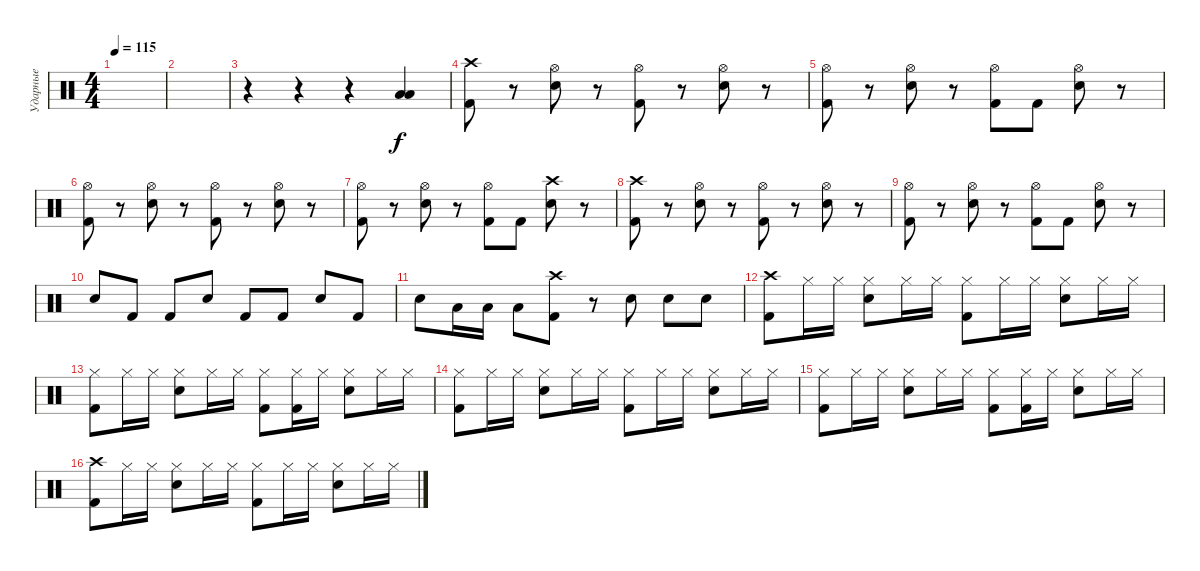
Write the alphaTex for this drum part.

\track ("Ударные" "Ударные") {instrument percussion}
\staff {score}
\articulation defaults
\ts (4 4)
\tempo 115
\clef neutral
\ks c
|
|
r.4 r.4 r.4 ("Low Tom (hit)" "Low Floor Tom (hit)").4 |
("Kick (hit) 2" "Crash high (hit)").8 r.8 ("Hi-Hat (open)" "Electric Snare (hit)").8 r.8 ("Kick (hit) 2" "Hi-Hat (open)").8 r.8 ("Hi-Hat (open)" "Electric Snare (hit)").8 r.8 |
("Kick (hit) 2" "Hi-Hat (open)").8 r.8 ("Hi-Hat (open)" "Electric Snare (hit)").8 r.8 ("Kick (hit) 2" "Hi-Hat (open)").8 "Kick (hit) 2".8 ("Hi-Hat (open)" "Electric Snare (hit)").8 r.8 |
("Kick (hit) 2" "Hi-Hat (open)").8 r.8 ("Hi-Hat (open)" "Electric Snare (hit)").8 r.8 ("Kick (hit) 2" "Hi-Hat (open)").8 r.8 ("Hi-Hat (open)" "Electric Snare (hit)").8 r.8 |
("Kick (hit) 2" "Hi-Hat (open)").8 r.8 ("Hi-Hat (open)" "Electric Snare (hit)").8 r.8 ("Kick (hit) 2" "Hi-Hat (open)").8 "Kick (hit) 2".8 ("Crash high (hit)" "Electric Snare (hit)").8 r.8 |
("Kick (hit) 2" "Crash high (hit)").8 r.8 ("Hi-Hat (open)" "Electric Snare (hit)").8 r.8 ("Kick (hit) 2" "Hi-Hat (open)").8 r.8 ("Hi-Hat (open)" "Electric Snare (hit)").8 r.8 |
("Kick (hit) 2" "Hi-Hat (open)").8 r.8 ("Hi-Hat (open)" "Electric Snare (hit)").8 r.8 ("Kick (hit) 2" "Hi-Hat (open)").8 "Kick (hit) 2".8 ("Hi-Hat (open)" "Electric Snare (hit)").8 r.8 |
"Electric Snare (hit)".8 "Kick (hit) 2".8 "Kick (hit) 2".8 "Electric Snare (hit)".8 "Kick (hit) 2".8 "Kick (hit) 2".8 "Electric Snare (hit)".8 "Kick (hit) 2".8 |
"Electric Snare (hit)".8 "Low Tom (hit)".16 "Low Tom (hit)".16 "Low Tom (hit)".8 ("Kick (hit) 2" "Crash high (hit)").8 r.8 "Electric Snare (hit)".8 "Electric Snare (hit)".8 "Electric Snare (hit)".8 |
("Kick (hit) 2" "Crash high (hit)").8 "Hi-Hat (closed)".16 "Hi-Hat (closed)".16 ("Hi-Hat (closed)" "Electric Snare (hit)").8 "Hi-Hat (closed)".16 "Hi-Hat (closed)".16 ("Kick (hit) 2" "Hi-Hat (closed)").8 "Hi-Hat (closed)".16 "Hi-Hat (closed)".16 ("Hi-Hat (closed)" "Electric Snare (hit)").8 "Hi-Hat (closed)".16 "Hi-Hat (closed)".16 |
("Kick (hit) 2" "Hi-Hat (closed)").8 "Hi-Hat (closed)".16 "Hi-Hat (closed)".16 ("Hi-Hat (closed)" "Electric Snare (hit)").8 "Hi-Hat (closed)".16 "Hi-Hat (closed)".16 ("Kick (hit) 2" "Hi-Hat (closed)").8 ("Kick (hit) 2" "Hi-Hat (closed)").16 "Hi-Hat (closed)".16 ("Hi-Hat (closed)" "Electric Snare (hit)").8 "Hi-Hat (closed)".16 "Hi-Hat (closed)".16 |
("Kick (hit) 2" "Hi-Hat (closed)").8 "Hi-Hat (closed)".16 "Hi-Hat (closed)".16 ("Hi-Hat (closed)" "Electric Snare (hit)").8 "Hi-Hat (closed)".16 "Hi-Hat (closed)".16 ("Kick (hit) 2" "Hi-Hat (closed)").8 "Hi-Hat (closed)".16 "Hi-Hat (closed)".16 ("Hi-Hat (closed)" "Electric Snare (hit)").8 "Hi-Hat (closed)".16 "Hi-Hat (closed)".16 |
("Kick (hit) 2" "Hi-Hat (closed)").8 "Hi-Hat (closed)".16 "Hi-Hat (closed)".16 ("Hi-Hat (closed)" "Electric Snare (hit)").8 "Hi-Hat (closed)".16 "Hi-Hat (closed)".16 ("Kick (hit) 2" "Hi-Hat (closed)").8 ("Kick (hit) 2" "Hi-Hat (closed)").16 "Hi-Hat (closed)".16 ("Hi-Hat (closed)" "Electric Snare (hit)").8 "Hi-Hat (closed)".16 "Hi-Hat (closed)".16 |
("Kick (hit) 2" "Crash high (hit)").8 "Hi-Hat (closed)".16 "Hi-Hat (closed)".16 ("Hi-Hat (closed)" "Electric Snare (hit)").8 "Hi-Hat (closed)".16 "Hi-Hat (closed)".16 ("Kick (hit) 2" "Hi-Hat (closed)").8 "Hi-Hat (closed)".16 "Hi-Hat (closed)".16 ("Hi-Hat (closed)" "Electric Snare (hit)").8 "Hi-Hat (closed)".16 "Hi-Hat (closed)".16
